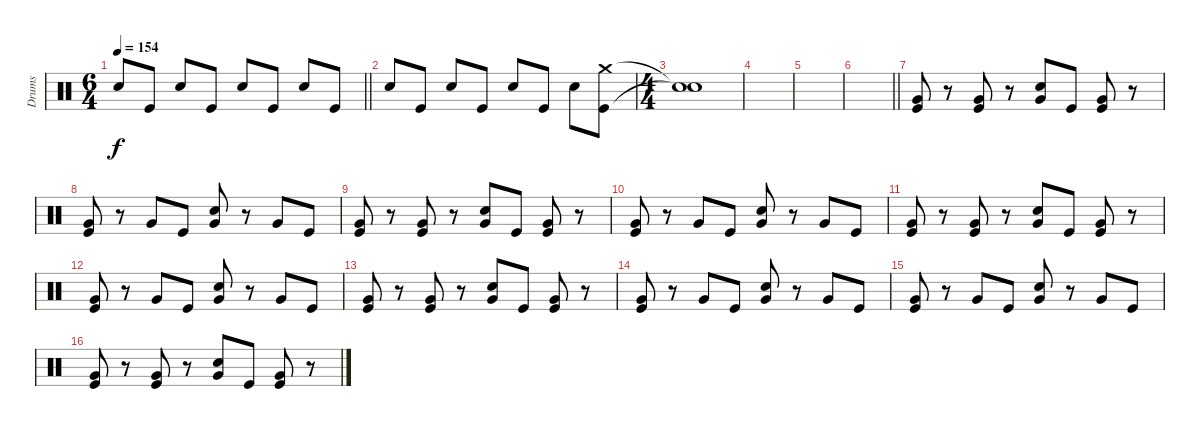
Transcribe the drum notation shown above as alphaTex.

\track ("Drums" "Drums") {instrument percussion}
\staff {score}
\articulation defaults
\ts (6 4)
\tempo 154
\clef neutral
\barLineRight lightlight
\ks c "Electric Snare (hit)".8{dy f} "Kick (hit)".8 "Electric Snare (hit)".8 "Kick (hit)".8 "Electric Snare (hit)".8 "Kick (hit)".8 "Electric Snare (hit)".8 "Kick (hit)".8
|
"Electric Snare (hit)".8 "Kick (hit)".8 "Electric Snare (hit)".8 "Kick (hit)".8 "Electric Snare (hit)".8 "Kick (hit)".8 "Electric Snare (hit)".8 ("Crash medium (hit)" "Kick (hit)").8 |
\ts (4 4)
("Snare (hit)"{t} "Snare (hit)"{t}).1 |
|
|
\barLineRight lightlight
|
("Very Low Tom (hit)" "Kick (hit)").8 r.8 ("Very Low Tom (hit)" "Kick (hit)").8 r.8 ("Very Low Tom (hit)" "Electric Snare (hit)").8 "Kick (hit)".8 ("Very Low Tom (hit)" "Kick (hit)").8 r.8 |
("Very Low Tom (hit)" "Kick (hit)").8 r.8 "Very Low Tom (hit)".8 "Kick (hit)".8 ("Very Low Tom (hit)" "Electric Snare (hit)").8 r.8 "Very Low Tom (hit)".8 "Kick (hit)".8 |
("Very Low Tom (hit)" "Kick (hit)").8 r.8 ("Very Low Tom (hit)" "Kick (hit)").8 r.8 ("Very Low Tom (hit)" "Electric Snare (hit)").8 "Kick (hit)".8 ("Very Low Tom (hit)" "Kick (hit)").8 r.8 |
("Very Low Tom (hit)" "Kick (hit)").8 r.8 "Very Low Tom (hit)".8 "Kick (hit)".8 ("Very Low Tom (hit)" "Electric Snare (hit)").8 r.8 "Very Low Tom (hit)".8 "Kick (hit)".8 |
("Very Low Tom (hit)" "Kick (hit)").8 r.8 ("Very Low Tom (hit)" "Kick (hit)").8 r.8 ("Very Low Tom (hit)" "Electric Snare (hit)").8 "Kick (hit)".8 ("Very Low Tom (hit)" "Kick (hit)").8 r.8 |
("Very Low Tom (hit)" "Kick (hit)").8 r.8 "Very Low Tom (hit)".8 "Kick (hit)".8 ("Very Low Tom (hit)" "Electric Snare (hit)").8 r.8 "Very Low Tom (hit)".8 "Kick (hit)".8 |
("Very Low Tom (hit)" "Kick (hit)").8 r.8 ("Very Low Tom (hit)" "Kick (hit)").8 r.8 ("Very Low Tom (hit)" "Electric Snare (hit)").8 "Kick (hit)".8 ("Very Low Tom (hit)" "Kick (hit)").8 r.8 |
("Very Low Tom (hit)" "Kick (hit)").8 r.8 "Very Low Tom (hit)".8 "Kick (hit)".8 ("Very Low Tom (hit)" "Electric Snare (hit)").8 r.8 "Very Low Tom (hit)".8 "Kick (hit)".8 |
("Very Low Tom (hit)" "Kick (hit)").8 r.8 "Very Low Tom (hit)".8 "Kick (hit)".8 ("Very Low Tom (hit)" "Electric Snare (hit)").8 r.8 "Very Low Tom (hit)".8 "Kick (hit)".8 |
("Very Low Tom (hit)" "Kick (hit)").8 r.8 ("Very Low Tom (hit)" "Kick (hit)").8 r.8 ("Very Low Tom (hit)" "Electric Snare (hit)").8 "Kick (hit)".8 ("Very Low Tom (hit)" "Kick (hit)").8 r.8
